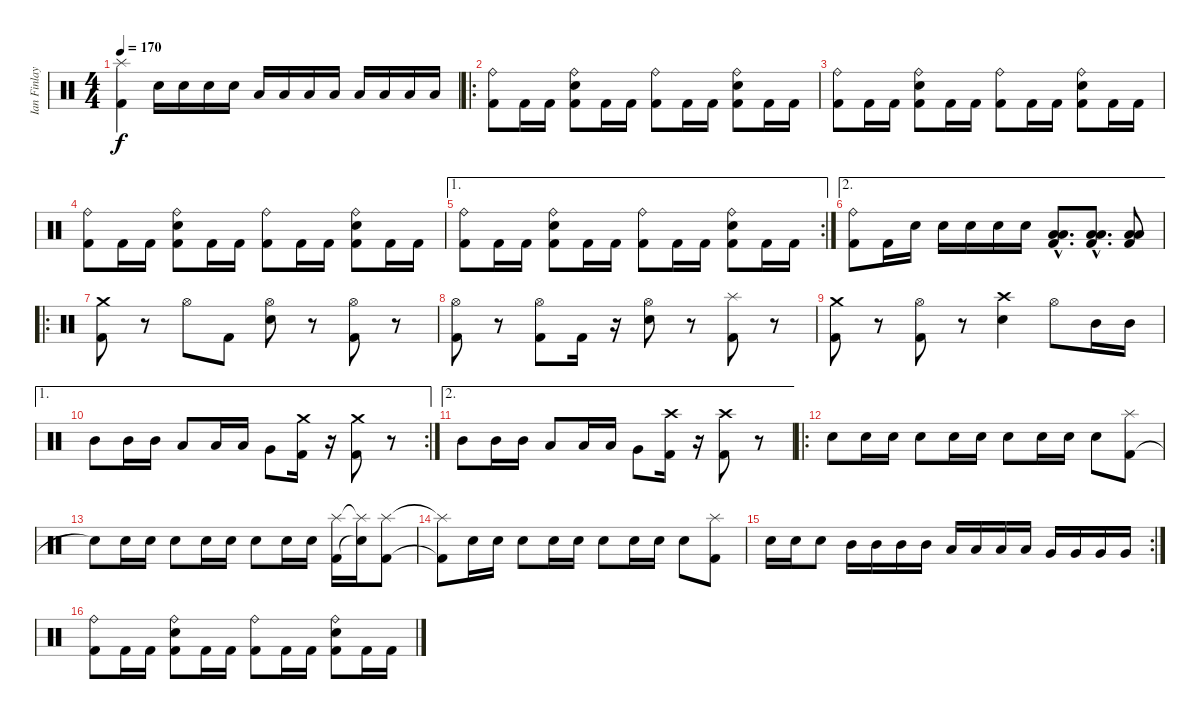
\track ("Ian Finlay (Drums)" "Ian Finlay") {instrument percussion}
\staff {score}
\articulation defaults
\ts (4 4)
\tempo 170
\clef neutral
\ks c
("Kick (hit) 2" "Splash (hit)").4{dy f} "Snare (hit) 2".16 "Snare (hit) 2".16 "Snare (hit) 2".16 "Snare (hit) 2".16 "Low Tom (hit)".16 "Low Tom (hit)".16 "Low Tom (hit)".16 "Low Tom (hit)".16 "Low Floor Tom (hit)".16 "Low Floor Tom (hit)".16 "Low Floor Tom (hit)".16 "Low Floor Tom (hit)".16 |
\ro
("Kick (hit) 2" "Ride (bell)").8 "Kick (hit) 2".16 "Kick (hit) 2".16 ("Kick (hit) 2" "Snare (hit) 2" "Ride (bell)").8 "Kick (hit) 2".16 "Kick (hit) 2".16 ("Kick (hit) 2" "Ride (bell)").8 "Kick (hit) 2".16 "Kick (hit) 2".16 ("Kick (hit) 2" "Snare (hit) 2" "Ride (bell)").8 "Kick (hit) 2".16 "Kick (hit) 2".16 |
("Kick (hit) 2" "Ride (bell)").8 "Kick (hit) 2".16 "Kick (hit) 2".16 ("Kick (hit) 2" "Snare (hit) 2" "Ride (bell)").8 "Kick (hit) 2".16 "Kick (hit) 2".16 ("Kick (hit) 2" "Ride (bell)").8 "Kick (hit) 2".16 "Kick (hit) 2".16 ("Kick (hit) 2" "Snare (hit) 2" "Ride (bell)").8 "Kick (hit) 2".16 "Kick (hit) 2".16 |
("Kick (hit) 2" "Ride (bell)").8 "Kick (hit) 2".16 "Kick (hit) 2".16 ("Kick (hit) 2" "Snare (hit) 2" "Ride (bell)").8 "Kick (hit) 2".16 "Kick (hit) 2".16 ("Kick (hit) 2" "Ride (bell)").8 "Kick (hit) 2".16 "Kick (hit) 2".16 ("Kick (hit) 2" "Snare (hit) 2" "Ride (bell)").8 "Kick (hit) 2".16 "Kick (hit) 2".16 |
\ae 1
\rc 2
("Kick (hit) 2" "Ride (bell)").8 "Kick (hit) 2".16 "Kick (hit) 2".16 ("Kick (hit) 2" "Snare (hit) 2" "Ride (bell)").8 "Kick (hit) 2".16 "Kick (hit) 2".16 ("Kick (hit) 2" "Ride (bell)").8 "Kick (hit) 2".16 "Kick (hit) 2".16 ("Kick (hit) 2" "Snare (hit) 2" "Ride (bell)").8 "Kick (hit) 2".16 "Kick (hit) 2".16 |
\ae 2
("Kick (hit) 2" "Ride (bell)").8 "Kick (hit) 2".16 "Snare (hit) 2".16 "Snare (hit) 2".16 "Snare (hit) 2".16 "Snare (hit) 2".16 "Snare (hit) 2".16 ("Kick (hit) 2"{hac} "Low Floor Tom (hit)"{hac} "Low Tom (hit)"{hac}).8{d} ("Kick (hit) 2"{hac} "Low Floor Tom (hit)"{hac} "Low Tom (hit)"{hac}).8{d} ("Kick (hit) 2" "Low Floor Tom (hit)" "Low Tom (hit)").8 |
\ro
("Kick (hit) 2" "Crash medium (hit)").8 r.8 "Hi-Hat (open)".8 "Kick (hit) 2".8 ("Snare (hit) 2" "Hi-Hat (open)").8 r.8 ("Kick (hit) 2" "Hi-Hat (open)").8 r.8 |
("Kick (hit) 2" "Hi-Hat (open)").8 r.8 ("Kick (hit) 2" "Hi-Hat (open)").8 "Kick (hit) 2".16 r.16 ("Snare (hit) 2" "Hi-Hat (open)").8 r.8 ("Kick (hit) 2" "Splash (hit)").8 r.8 |
("Kick (hit) 2" "Crash medium (hit)").8 r.8 ("Kick (hit) 2" "Hi-Hat (open)").8 r.8 ("Snare (hit) 2" "Crash high (hit)").4 "Hi-Hat (open)".8 "Mid Tom (hit)".16 "Mid Tom (hit)".16 |
\ae 1
\rc 2 "Mid Tom (hit)".8 "Mid Tom (hit)".16 "Mid Tom (hit)".16 "Low Tom (hit)".8 "Low Tom (hit)".16 "Low Tom (hit)".16 "Very Low Tom (hit)".8
("Kick (hit) 2" "Crash medium (hit)").16 r.16 ("Kick (hit) 2" "Crash medium (hit)").8 r.8 |
\ae 2 "Mid Tom (hit)".8 "Mid Tom (hit)".16 "Mid Tom (hit)".16 "Low Tom (hit)".8 "Low Tom (hit)".16 "Low Tom (hit)".16 "Very Low Tom (hit)".8
("Kick (hit) 2" "Crash high (hit)").16 r.16 ("Kick (hit) 2" "Crash high (hit)").8 r.8 |
\ro "Snare (hit) 2".8 "Snare (hit) 2".16 "Snare (hit) 2".16 "Snare (hit) 2".8 "Snare (hit) 2".16 "Snare (hit) 2".16 "Snare (hit) 2".8 "Snare (hit) 2".16 "Snare (hit) 2".16 "Snare (hit) 2".8
("Kick (hit) 2" "Splash (hit)").8 |
"Snare (hit)"{t}.8 "Snare (hit) 2".16 "Snare (hit) 2".16 "Snare (hit) 2".8 "Snare (hit) 2".16 "Snare (hit) 2".16 "Snare (hit) 2".8 "Snare (hit) 2".16 "Snare (hit) 2".16 ("Kick (hit) 2" "Splash (hit)").16 ("Snare (hit) 2"{t} "Splash (hit)"{t}).16 ("Kick (hit) 2" "Splash (hit)").8 |
("Kick (hit) 2"{t} "Splash (hit)"{t}).8 "Snare (hit) 2".16 "Snare (hit) 2".16 "Snare (hit) 2".8 "Snare (hit) 2".16 "Snare (hit) 2".16 "Snare (hit) 2".8 "Snare (hit) 2".16 "Snare (hit) 2".16 "Snare (hit) 2".8 ("Kick (hit) 2" "Splash (hit)").8 |
\rc 2 "Snare (hit) 2".16 "Snare (hit) 2".16 "Snare (hit) 2".8 "Mid Tom (hit)".16 "Mid Tom (hit)".16 "Mid Tom (hit)".16 "Mid Tom (hit)".16 "Low Tom (hit)".16 "Low Tom (hit)".16 "Low Tom (hit)".16 "Low Tom (hit)".16 "Very Low Tom (hit)".16 "Very Low Tom (hit)".16 "Very Low Tom (hit)".16 "Very Low Tom (hit)".16
|
("Kick (hit) 2" "Ride (bell)").8 "Kick (hit) 2".16 "Kick (hit) 2".16 ("Kick (hit) 2" "Snare (hit) 2" "Ride (bell)").8 "Kick (hit) 2".16 "Kick (hit) 2".16 ("Kick (hit) 2" "Ride (bell)").8 "Kick (hit) 2".16 "Kick (hit) 2".16 ("Kick (hit) 2" "Snare (hit) 2" "Ride (bell)").8 "Kick (hit) 2".16 "Kick (hit) 2".16
